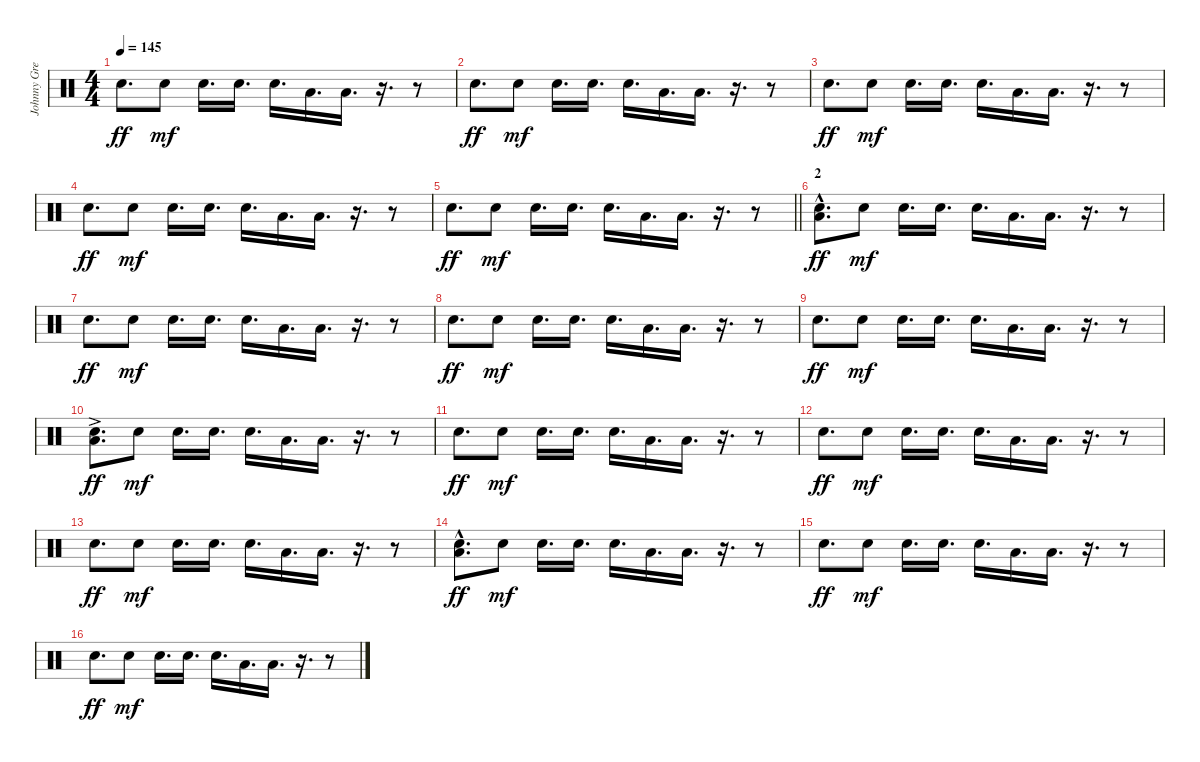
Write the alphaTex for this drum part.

\track ("Johnny Greenwood" "Johnny Gre") {instrument percussion}
\staff {score}
\articulation defaults
\ts (4 4)
\tempo 145
\clef neutral
\ks c "Snare (hit) 2".8{d dy ff} "Snare (hit) 2".8{dy mf} "Snare (hit) 2".16{d} "Snare (hit) 2".16{d} "Snare (hit) 2".16{d} "Low Floor Tom (hit)".16{d} "Low Floor Tom (hit)".16{d}
r.16{d} r.8 |
"Snare (hit) 2".8{d dy ff} "Snare (hit) 2".8{dy mf} "Snare (hit) 2".16{d} "Snare (hit) 2".16{d} "Snare (hit) 2".16{d} "Low Floor Tom (hit)".16{d} "Low Floor Tom (hit)".16{d} r.16{d} r.8 |
"Snare (hit) 2".8{d dy ff} "Snare (hit) 2".8{dy mf} "Snare (hit) 2".16{d} "Snare (hit) 2".16{d} "Snare (hit) 2".16{d} "Low Floor Tom (hit)".16{d} "Low Floor Tom (hit)".16{d} r.16{d} r.8 |
"Snare (hit) 2".8{d dy ff} "Snare (hit) 2".8{dy mf} "Snare (hit) 2".16{d} "Snare (hit) 2".16{d} "Snare (hit) 2".16{d} "Low Floor Tom (hit)".16{d} "Low Floor Tom (hit)".16{d} r.16{d} r.8 |
\barLineRight lightlight "Snare (hit) 2".8{d dy ff} "Snare (hit) 2".8{dy mf} "Snare (hit) 2".16{d} "Snare (hit) 2".16{d} "Snare (hit) 2".16{d} "Low Floor Tom (hit)".16{d} "Low Floor Tom (hit)".16{d}
r.16{d} r.8 |
\section ("" "2")
("Snare (hit) 2" "Low Floor Tom (hit)"{hac}).8{d dy ff} "Snare (hit) 2".8{dy mf} "Snare (hit) 2".16{d} "Snare (hit) 2".16{d} "Snare (hit) 2".16{d} "Low Floor Tom (hit)".16{d} "Low Floor Tom (hit)".16{d} r.16{d} r.8 |
"Snare (hit) 2".8{d dy ff} "Snare (hit) 2".8{dy mf} "Snare (hit) 2".16{d} "Snare (hit) 2".16{d} "Snare (hit) 2".16{d} "Low Floor Tom (hit)".16{d} "Low Floor Tom (hit)".16{d} r.16{d} r.8 |
"Snare (hit) 2".8{d dy ff} "Snare (hit) 2".8{dy mf} "Snare (hit) 2".16{d} "Snare (hit) 2".16{d} "Snare (hit) 2".16{d} "Low Floor Tom (hit)".16{d} "Low Floor Tom (hit)".16{d} r.16{d} r.8 |
"Snare (hit) 2".8{d dy ff} "Snare (hit) 2".8{dy mf} "Snare (hit) 2".16{d} "Snare (hit) 2".16{d} "Snare (hit) 2".16{d} "Low Floor Tom (hit)".16{d} "Low Floor Tom (hit)".16{d} r.16{d} r.8 |
("Snare (hit) 2" "Low Floor Tom (hit)"{ac}).8{d dy ff} "Snare (hit) 2".8{dy mf} "Snare (hit) 2".16{d} "Snare (hit) 2".16{d} "Snare (hit) 2".16{d} "Low Floor Tom (hit)".16{d} "Low Floor Tom (hit)".16{d} r.16{d} r.8 |
"Snare (hit) 2".8{d dy ff} "Snare (hit) 2".8{dy mf} "Snare (hit) 2".16{d} "Snare (hit) 2".16{d} "Snare (hit) 2".16{d} "Low Floor Tom (hit)".16{d} "Low Floor Tom (hit)".16{d} r.16{d} r.8 |
"Snare (hit) 2".8{d dy ff} "Snare (hit) 2".8{dy mf} "Snare (hit) 2".16{d} "Snare (hit) 2".16{d} "Snare (hit) 2".16{d} "Low Floor Tom (hit)".16{d} "Low Floor Tom (hit)".16{d} r.16{d} r.8 |
"Snare (hit) 2".8{d dy ff} "Snare (hit) 2".8{dy mf} "Snare (hit) 2".16{d} "Snare (hit) 2".16{d} "Snare (hit) 2".16{d} "Low Floor Tom (hit)".16{d} "Low Floor Tom (hit)".16{d} r.16{d} r.8 |
("Snare (hit) 2" "Low Floor Tom (hit)"{hac}).8{d dy ff} "Snare (hit) 2".8{dy mf} "Snare (hit) 2".16{d} "Snare (hit) 2".16{d} "Snare (hit) 2".16{d} "Low Floor Tom (hit)".16{d} "Low Floor Tom (hit)".16{d} r.16{d} r.8 |
"Snare (hit) 2".8{d dy ff} "Snare (hit) 2".8{dy mf} "Snare (hit) 2".16{d} "Snare (hit) 2".16{d} "Snare (hit) 2".16{d} "Low Floor Tom (hit)".16{d} "Low Floor Tom (hit)".16{d} r.16{d} r.8 |
"Snare (hit) 2".8{d dy ff} "Snare (hit) 2".8{dy mf} "Snare (hit) 2".16{d} "Snare (hit) 2".16{d} "Snare (hit) 2".16{d} "Low Floor Tom (hit)".16{d} "Low Floor Tom (hit)".16{d} r.16{d} r.8
